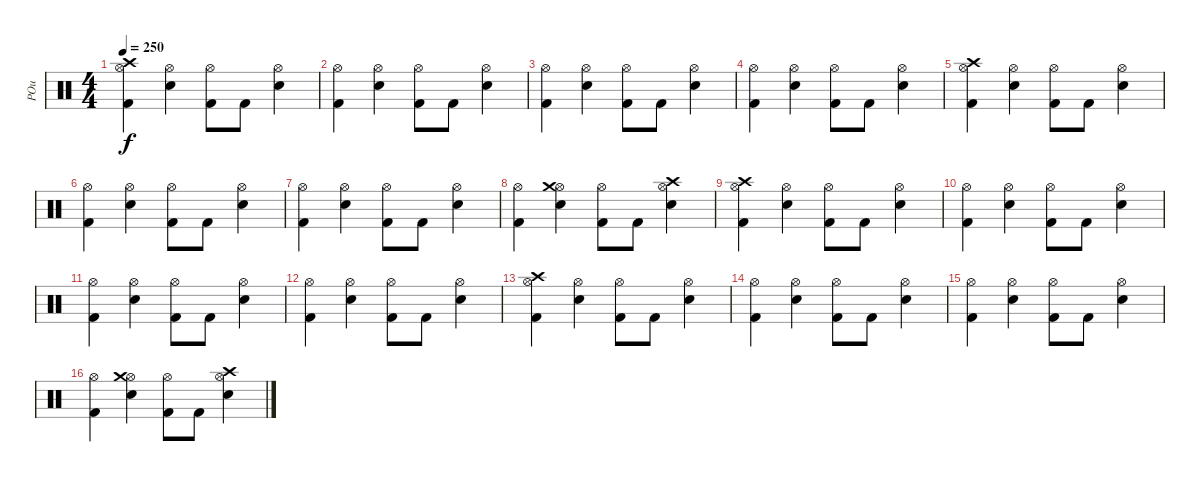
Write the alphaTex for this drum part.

\track ("POu" "POu") {instrument percussion}
\staff {score}
\articulation defaults
\ts (4 4)
\tempo 250
\clef neutral
\ks c
("Kick (hit) 2" "Hi-Hat (open)" "Crash high (hit)").4{dy f} ("Electric Snare (hit)" "Hi-Hat (open)").4 ("Kick (hit) 2" "Hi-Hat (open)").8 "Kick (hit) 2".8 ("Electric Snare (hit)" "Hi-Hat (open)").4 |
("Kick (hit) 2" "Hi-Hat (open)").4 ("Electric Snare (hit)" "Hi-Hat (open)").4 ("Kick (hit) 2" "Hi-Hat (open)").8 "Kick (hit) 2".8 ("Electric Snare (hit)" "Hi-Hat (open)").4 |
("Kick (hit) 2" "Hi-Hat (open)").4 ("Electric Snare (hit)" "Hi-Hat (open)").4 ("Kick (hit) 2" "Hi-Hat (open)").8 "Kick (hit) 2".8 ("Electric Snare (hit)" "Hi-Hat (open)").4 |
("Kick (hit) 2" "Hi-Hat (open)").4 ("Electric Snare (hit)" "Hi-Hat (open)").4 ("Kick (hit) 2" "Hi-Hat (open)").8 "Kick (hit) 2".8 ("Electric Snare (hit)" "Hi-Hat (open)").4 |
("Kick (hit) 2" "Hi-Hat (open)" "Crash high (hit)").4 ("Electric Snare (hit)" "Hi-Hat (open)").4 ("Kick (hit) 2" "Hi-Hat (open)").8 "Kick (hit) 2".8 ("Electric Snare (hit)" "Hi-Hat (open)").4 |
("Kick (hit) 2" "Hi-Hat (open)").4 ("Electric Snare (hit)" "Hi-Hat (open)").4 ("Kick (hit) 2" "Hi-Hat (open)").8 "Kick (hit) 2".8 ("Electric Snare (hit)" "Hi-Hat (open)").4 |
("Kick (hit) 2" "Hi-Hat (open)").4 ("Electric Snare (hit)" "Hi-Hat (open)").4 ("Kick (hit) 2" "Hi-Hat (open)").8 "Kick (hit) 2".8 ("Electric Snare (hit)" "Hi-Hat (open)").4 |
("Kick (hit) 2" "Hi-Hat (open)").4 ("Electric Snare (hit)" "Hi-Hat (open)" "Crash medium (hit)").4 ("Kick (hit) 2" "Hi-Hat (open)").8 "Kick (hit) 2".8 ("Electric Snare (hit)" "Hi-Hat (open)" "Crash high (hit)").4 |
("Kick (hit) 2" "Hi-Hat (open)" "Crash high (hit)").4 ("Electric Snare (hit)" "Hi-Hat (open)").4 ("Kick (hit) 2" "Hi-Hat (open)").8 "Kick (hit) 2".8 ("Electric Snare (hit)" "Hi-Hat (open)").4 |
("Kick (hit) 2" "Hi-Hat (open)").4 ("Electric Snare (hit)" "Hi-Hat (open)").4 ("Kick (hit) 2" "Hi-Hat (open)").8 "Kick (hit) 2".8 ("Electric Snare (hit)" "Hi-Hat (open)").4 |
("Kick (hit) 2" "Hi-Hat (open)").4 ("Electric Snare (hit)" "Hi-Hat (open)").4 ("Kick (hit) 2" "Hi-Hat (open)").8 "Kick (hit) 2".8 ("Electric Snare (hit)" "Hi-Hat (open)").4 |
("Kick (hit) 2" "Hi-Hat (open)").4 ("Electric Snare (hit)" "Hi-Hat (open)").4 ("Kick (hit) 2" "Hi-Hat (open)").8 "Kick (hit) 2".8 ("Electric Snare (hit)" "Hi-Hat (open)").4 |
("Kick (hit) 2" "Hi-Hat (open)" "Crash high (hit)").4 ("Electric Snare (hit)" "Hi-Hat (open)").4 ("Kick (hit) 2" "Hi-Hat (open)").8 "Kick (hit) 2".8 ("Electric Snare (hit)" "Hi-Hat (open)").4 |
("Kick (hit) 2" "Hi-Hat (open)").4 ("Electric Snare (hit)" "Hi-Hat (open)").4 ("Kick (hit) 2" "Hi-Hat (open)").8 "Kick (hit) 2".8 ("Electric Snare (hit)" "Hi-Hat (open)").4 |
("Kick (hit) 2" "Hi-Hat (open)").4 ("Electric Snare (hit)" "Hi-Hat (open)").4 ("Kick (hit) 2" "Hi-Hat (open)").8 "Kick (hit) 2".8 ("Electric Snare (hit)" "Hi-Hat (open)").4 |
("Kick (hit) 2" "Hi-Hat (open)").4 ("Electric Snare (hit)" "Hi-Hat (open)" "Crash medium (hit)").4 ("Kick (hit) 2" "Hi-Hat (open)").8 "Kick (hit) 2".8 ("Electric Snare (hit)" "Hi-Hat (open)" "Crash high (hit)").4
